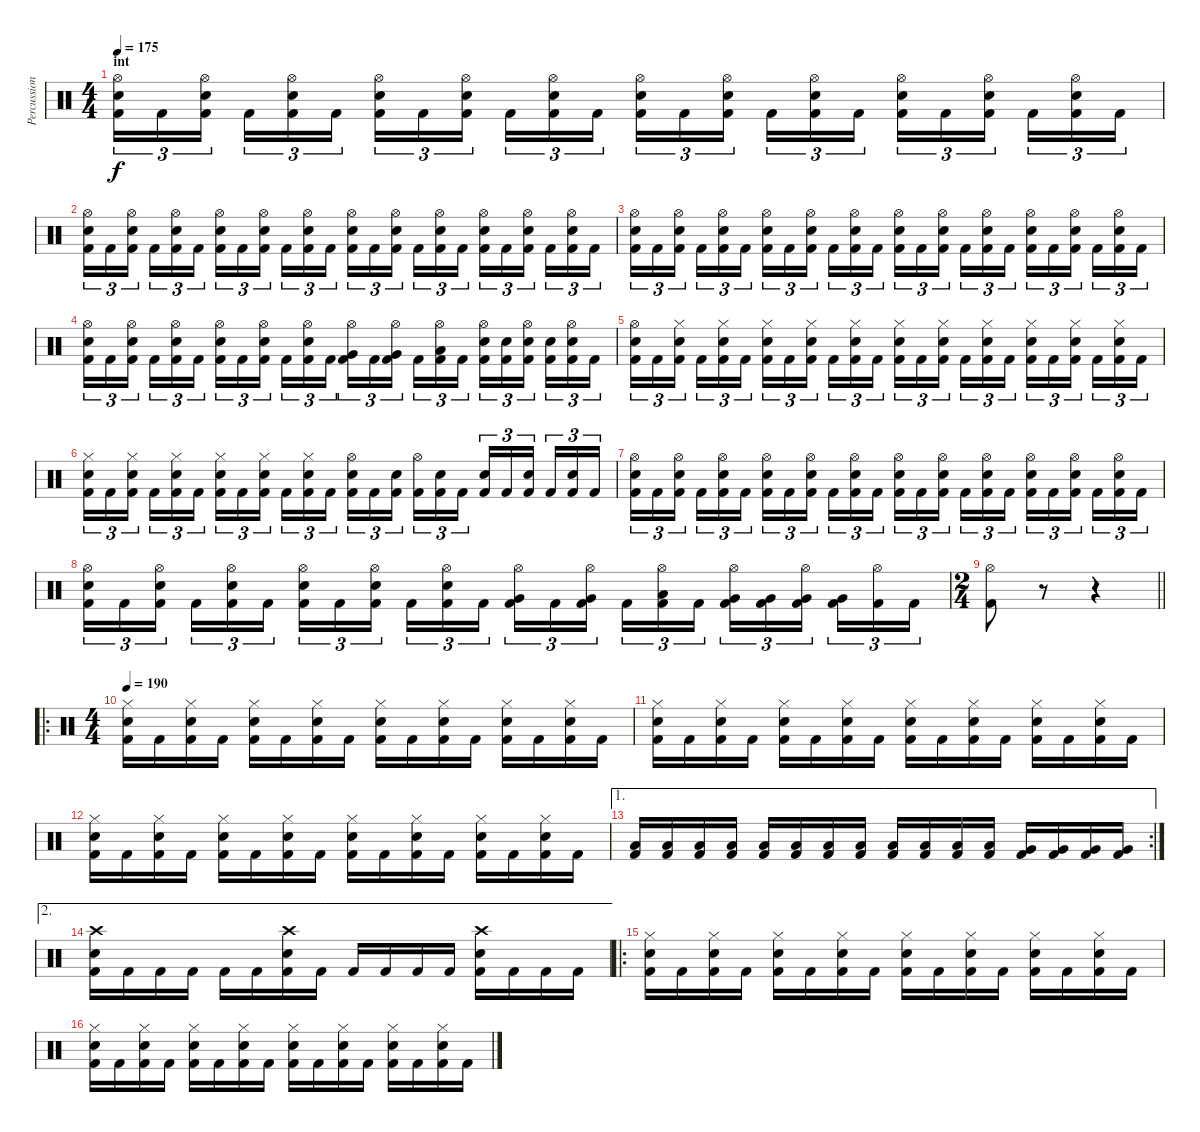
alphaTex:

\track ("Percussion" "Percussion") {instrument percussion}
\staff {score}
\articulation defaults
\ts (4 4)
\section ("" "int")
\tempo 175
\clef neutral
\ks c
("Hi-Hat (open)" "Snare (hit) 2" "Kick (hit) 2").16{tu (3 2) dy f} "Kick (hit) 2".16{tu (3 2)} ("Hi-Hat (open)" "Snare (hit) 2" "Kick (hit) 2").16{tu (3 2)} "Kick (hit) 2".16{tu (3 2)} ("Hi-Hat (open)" "Snare (hit) 2" "Kick (hit) 2").16{tu (3 2)} "Kick (hit) 2".16{tu (3 2)} ("Hi-Hat (open)" "Snare (hit) 2" "Kick (hit) 2").16{tu (3 2)} "Kick (hit) 2".16{tu (3 2)} ("Hi-Hat (open)" "Snare (hit) 2" "Kick (hit) 2").16{tu (3 2)} "Kick (hit) 2".16{tu (3 2)} ("Hi-Hat (open)" "Snare (hit) 2" "Kick (hit) 2").16{tu (3 2)} "Kick (hit) 2".16{tu (3 2)} ("Hi-Hat (open)" "Snare (hit) 2" "Kick (hit) 2").16{tu (3 2)} "Kick (hit) 2".16{tu (3 2)} ("Hi-Hat (open)" "Snare (hit) 2" "Kick (hit) 2").16{tu (3 2)} "Kick (hit) 2".16{tu (3 2)} ("Hi-Hat (open)" "Snare (hit) 2" "Kick (hit) 2").16{tu (3 2)} "Kick (hit) 2".16{tu (3 2)} ("Hi-Hat (open)" "Snare (hit) 2" "Kick (hit) 2").16{tu (3 2)} "Kick (hit) 2".16{tu (3 2)} ("Hi-Hat (open)" "Snare (hit) 2" "Kick (hit) 2").16{tu (3 2)} "Kick (hit) 2".16{tu (3 2)} ("Hi-Hat (open)" "Snare (hit) 2" "Kick (hit) 2").16{tu (3 2)} "Kick (hit) 2".16{tu (3 2)} |
("Hi-Hat (open)" "Snare (hit) 2" "Kick (hit) 2").16{tu (3 2)} "Kick (hit) 2".16{tu (3 2)} ("Hi-Hat (open)" "Snare (hit) 2" "Kick (hit) 2").16{tu (3 2)} "Kick (hit) 2".16{tu (3 2)} ("Hi-Hat (open)" "Snare (hit) 2" "Kick (hit) 2").16{tu (3 2)} "Kick (hit) 2".16{tu (3 2)} ("Hi-Hat (open)" "Snare (hit) 2" "Kick (hit) 2").16{tu (3 2)} "Kick (hit) 2".16{tu (3 2)} ("Hi-Hat (open)" "Snare (hit) 2" "Kick (hit) 2").16{tu (3 2)} "Kick (hit) 2".16{tu (3 2)} ("Hi-Hat (open)" "Snare (hit) 2" "Kick (hit) 2").16{tu (3 2)} "Kick (hit) 2".16{tu (3 2)} ("Hi-Hat (open)" "Snare (hit) 2" "Kick (hit) 2").16{tu (3 2)} "Kick (hit) 2".16{tu (3 2)} ("Hi-Hat (open)" "Snare (hit) 2" "Kick (hit) 2").16{tu (3 2)} "Kick (hit) 2".16{tu (3 2)} ("Hi-Hat (open)" "Snare (hit) 2" "Kick (hit) 2").16{tu (3 2)} "Kick (hit) 2".16{tu (3 2)} ("Hi-Hat (open)" "Snare (hit) 2" "Kick (hit) 2").16{tu (3 2)} "Kick (hit) 2".16{tu (3 2)} ("Hi-Hat (open)" "Snare (hit) 2" "Kick (hit) 2").16{tu (3 2)} "Kick (hit) 2".16{tu (3 2)} ("Hi-Hat (open)" "Snare (hit) 2" "Kick (hit) 2").16{tu (3 2)} "Kick (hit) 2".16{tu (3 2)} |
("Hi-Hat (open)" "Snare (hit) 2" "Kick (hit) 2").16{tu (3 2)} "Kick (hit) 2".16{tu (3 2)} ("Hi-Hat (open)" "Snare (hit) 2" "Kick (hit) 2").16{tu (3 2)} "Kick (hit) 2".16{tu (3 2)} ("Hi-Hat (open)" "Snare (hit) 2" "Kick (hit) 2").16{tu (3 2)} "Kick (hit) 2".16{tu (3 2)} ("Hi-Hat (open)" "Snare (hit) 2" "Kick (hit) 2").16{tu (3 2)} "Kick (hit) 2".16{tu (3 2)} ("Hi-Hat (open)" "Snare (hit) 2" "Kick (hit) 2").16{tu (3 2)} "Kick (hit) 2".16{tu (3 2)} ("Hi-Hat (open)" "Snare (hit) 2" "Kick (hit) 2").16{tu (3 2)} "Kick (hit) 2".16{tu (3 2)} ("Hi-Hat (open)" "Snare (hit) 2" "Kick (hit) 2").16{tu (3 2)} "Kick (hit) 2".16{tu (3 2)} ("Hi-Hat (open)" "Snare (hit) 2" "Kick (hit) 2").16{tu (3 2)} "Kick (hit) 2".16{tu (3 2)} ("Hi-Hat (open)" "Snare (hit) 2" "Kick (hit) 2").16{tu (3 2)} "Kick (hit) 2".16{tu (3 2)} ("Hi-Hat (open)" "Snare (hit) 2" "Kick (hit) 2").16{tu (3 2)} "Kick (hit) 2".16{tu (3 2)} ("Hi-Hat (open)" "Snare (hit) 2" "Kick (hit) 2").16{tu (3 2)} "Kick (hit) 2".16{tu (3 2)} ("Hi-Hat (open)" "Snare (hit) 2" "Kick (hit) 2").16{tu (3 2)} "Kick (hit) 2".16{tu (3 2)} |
("Hi-Hat (open)" "Snare (hit) 2" "Kick (hit) 2").16{tu (3 2)} "Kick (hit) 2".16{tu (3 2)} ("Hi-Hat (open)" "Snare (hit) 2" "Kick (hit) 2").16{tu (3 2)} "Kick (hit) 2".16{tu (3 2)} ("Hi-Hat (open)" "Snare (hit) 2" "Kick (hit) 2").16{tu (3 2)} "Kick (hit) 2".16{tu (3 2)} ("Hi-Hat (open)" "Snare (hit) 2" "Kick (hit) 2").16{tu (3 2)} "Kick (hit) 2".16{tu (3 2)} ("Hi-Hat (open)" "Snare (hit) 2" "Kick (hit) 2").16{tu (3 2)} "Kick (hit) 2".16{tu (3 2)} ("Hi-Hat (open)" "Snare (hit) 2" "Kick (hit) 2").16{tu (3 2)} "Kick (hit) 2".16{tu (3 2)} ("Hi-Hat (open)" "Very Low Tom (hit)" "Kick (hit) 2").16{tu (3 2)} "Kick (hit) 2".16{tu (3 2)} ("Hi-Hat (open)" "Very Low Tom (hit)" "Kick (hit) 2").16{tu (3 2)} "Kick (hit) 2".16{tu (3 2)} ("Hi-Hat (open)" "Low Tom (hit)" "Kick (hit) 2").16{tu (3 2)} "Kick (hit) 2".16{tu (3 2)} ("Hi-Hat (open)" "Snare (hit) 2" "Kick (hit) 2").16{tu (3 2)} ("Snare (hit) 2" "Kick (hit) 2").16{tu (3 2)} ("Hi-Hat (open)" "Snare (hit) 2" "Kick (hit) 2").16{tu (3 2)} ("Snare (hit) 2" "Kick (hit) 2").16{tu (3 2)} ("Hi-Hat (open)" "Snare (hit) 2" "Kick (hit) 2").16{tu (3 2)} "Kick (hit) 2".16{tu (3 2)} |
("Hi-Hat (open)" "Snare (hit) 2" "Kick (hit) 2").16{tu (3 2)} "Kick (hit) 2".16{tu (3 2)} ("Hi-Hat (closed)" "Snare (hit) 2" "Kick (hit) 2").16{tu (3 2)} "Kick (hit) 2".16{tu (3 2)} ("Hi-Hat (closed)" "Snare (hit) 2" "Kick (hit) 2").16{tu (3 2)} "Kick (hit) 2".16{tu (3 2)} ("Hi-Hat (closed)" "Snare (hit) 2" "Kick (hit) 2").16{tu (3 2)} "Kick (hit) 2".16{tu (3 2)} ("Hi-Hat (closed)" "Snare (hit) 2" "Kick (hit) 2").16{tu (3 2)} "Kick (hit) 2".16{tu (3 2)} ("Hi-Hat (closed)" "Snare (hit) 2" "Kick (hit) 2").16{tu (3 2)} "Kick (hit) 2".16{tu (3 2)} ("Hi-Hat (closed)" "Snare (hit) 2" "Kick (hit) 2").16{tu (3 2)} "Kick (hit) 2".16{tu (3 2)} ("Hi-Hat (closed)" "Snare (hit) 2" "Kick (hit) 2").16{tu (3 2)} "Kick (hit) 2".16{tu (3 2)} ("Hi-Hat (closed)" "Snare (hit) 2" "Kick (hit) 2").16{tu (3 2)} "Kick (hit) 2".16{tu (3 2)} ("Hi-Hat (closed)" "Snare (hit) 2" "Kick (hit) 2").16{tu (3 2)} "Kick (hit) 2".16{tu (3 2)} ("Hi-Hat (closed)" "Snare (hit) 2" "Kick (hit) 2").16{tu (3 2)} "Kick (hit) 2".16{tu (3 2)} ("Hi-Hat (closed)" "Snare (hit) 2" "Kick (hit) 2").16{tu (3 2)} "Kick (hit) 2".16{tu (3 2)} |
("Hi-Hat (closed)" "Snare (hit) 2" "Kick (hit) 2").16{tu (3 2)} "Kick (hit) 2".16{tu (3 2)} ("Hi-Hat (closed)" "Snare (hit) 2" "Kick (hit) 2").16{tu (3 2)} "Kick (hit) 2".16{tu (3 2)} ("Hi-Hat (closed)" "Snare (hit) 2" "Kick (hit) 2").16{tu (3 2)} "Kick (hit) 2".16{tu (3 2)} ("Hi-Hat (closed)" "Snare (hit) 2" "Kick (hit) 2").16{tu (3 2)} "Kick (hit) 2".16{tu (3 2)} ("Hi-Hat (closed)" "Snare (hit) 2" "Kick (hit) 2").16{tu (3 2)} "Kick (hit) 2".16{tu (3 2)} ("Hi-Hat (closed)" "Snare (hit) 2" "Kick (hit) 2").16{tu (3 2)} "Kick (hit) 2".16{tu (3 2)} ("Hi-Hat (open)" "Snare (hit) 2" "Kick (hit) 2").16{tu (3 2)} "Kick (hit) 2".16{tu (3 2)} ("Snare (hit) 2" "Kick (hit) 2").16{tu (3 2)} ("Hi-Hat (open)" "Kick (hit) 2").16{tu (3 2)} ("Snare (hit) 2" "Kick (hit) 2").16{tu (3 2)} "Kick (hit) 2".16{tu (3 2)} ("Snare (hit) 2" "Kick (hit) 2").16{tu (3 2)} "Kick (hit) 2".16{tu (3 2)} ("Snare (hit) 2" "Kick (hit) 2").16{tu (3 2)} "Kick (hit) 2".16{tu (3 2)} ("Snare (hit) 2" "Kick (hit) 2").16{tu (3 2)} "Kick (hit) 2".16{tu (3 2)} |
("Hi-Hat (open)" "Snare (hit) 2" "Kick (hit) 2").16{tu (3 2)} "Kick (hit) 2".16{tu (3 2)} ("Hi-Hat (open)" "Snare (hit) 2" "Kick (hit) 2").16{tu (3 2)} "Kick (hit) 2".16{tu (3 2)} ("Hi-Hat (open)" "Snare (hit) 2" "Kick (hit) 2").16{tu (3 2)} "Kick (hit) 2".16{tu (3 2)} ("Hi-Hat (open)" "Snare (hit) 2" "Kick (hit) 2").16{tu (3 2)} "Kick (hit) 2".16{tu (3 2)} ("Hi-Hat (open)" "Snare (hit) 2" "Kick (hit) 2").16{tu (3 2)} "Kick (hit) 2".16{tu (3 2)} ("Hi-Hat (open)" "Snare (hit) 2" "Kick (hit) 2").16{tu (3 2)} "Kick (hit) 2".16{tu (3 2)} ("Hi-Hat (open)" "Snare (hit) 2" "Kick (hit) 2").16{tu (3 2)} "Kick (hit) 2".16{tu (3 2)} ("Hi-Hat (open)" "Snare (hit) 2" "Kick (hit) 2").16{tu (3 2)} "Kick (hit) 2".16{tu (3 2)} ("Hi-Hat (open)" "Snare (hit) 2" "Kick (hit) 2").16{tu (3 2)} "Kick (hit) 2".16{tu (3 2)} ("Hi-Hat (open)" "Snare (hit) 2" "Kick (hit) 2").16{tu (3 2)} "Kick (hit) 2".16{tu (3 2)} ("Hi-Hat (open)" "Snare (hit) 2" "Kick (hit) 2").16{tu (3 2)} "Kick (hit) 2".16{tu (3 2)} ("Hi-Hat (open)" "Snare (hit) 2" "Kick (hit) 2").16{tu (3 2)} "Kick (hit) 2".16{tu (3 2)} |
("Hi-Hat (open)" "Snare (hit) 2" "Kick (hit) 2").16{tu (3 2)} "Kick (hit) 2".16{tu (3 2)} ("Hi-Hat (open)" "Snare (hit) 2" "Kick (hit) 2").16{tu (3 2)} "Kick (hit) 2".16{tu (3 2)} ("Hi-Hat (open)" "Snare (hit) 2" "Kick (hit) 2").16{tu (3 2)} "Kick (hit) 2".16{tu (3 2)} ("Hi-Hat (open)" "Snare (hit) 2" "Kick (hit) 2").16{tu (3 2)} "Kick (hit) 2".16{tu (3 2)} ("Hi-Hat (open)" "Snare (hit) 2" "Kick (hit) 2").16{tu (3 2)} "Kick (hit) 2".16{tu (3 2)} ("Hi-Hat (open)" "Snare (hit) 2" "Kick (hit) 2").16{tu (3 2)} "Kick (hit) 2".16{tu (3 2)} ("Hi-Hat (open)" "Very Low Tom (hit)" "Kick (hit) 2").16{tu (3 2)} "Kick (hit) 2".16{tu (3 2)} ("Hi-Hat (open)" "Very Low Tom (hit)" "Kick (hit) 2").16{tu (3 2)} "Kick (hit) 2".16{tu (3 2)} ("Hi-Hat (open)" "Low Tom (hit)" "Kick (hit) 2").16{tu (3 2)} "Kick (hit) 2".16{tu (3 2)} ("Hi-Hat (open)" "Very Low Tom (hit)" "Kick (hit) 2").16{tu (3 2)} ("Very Low Tom (hit)" "Kick (hit) 2").16{tu (3 2)} ("Hi-Hat (open)" "Very Low Tom (hit)" "Kick (hit) 2").16{tu (3 2)} ("Very Low Tom (hit)" "Kick (hit) 2").16{tu (3 2)} ("Hi-Hat (open)" "Kick (hit) 2").16{tu (3 2)} "Kick (hit) 2".16{tu (3 2)} |
\ts (2 4)
\barLineRight lightlight
("Hi-Hat (open)" "Kick (hit) 2").8 r.8 r.4 |
\ro
\ts (4 4)
\section ("" "")
\tempo 210
\tempo 190
("Hi-Hat (closed)" "Snare (hit) 2" "Kick (hit) 2").16 "Kick (hit) 2".16 ("Hi-Hat (closed)" "Snare (hit) 2" "Kick (hit) 2").16 "Kick (hit) 2".16 ("Hi-Hat (closed)" "Snare (hit) 2" "Kick (hit) 2").16 "Kick (hit) 2".16 ("Hi-Hat (closed)" "Snare (hit) 2" "Kick (hit) 2").16 "Kick (hit) 2".16 ("Hi-Hat (closed)" "Snare (hit) 2" "Kick (hit) 2").16 "Kick (hit) 2".16 ("Hi-Hat (closed)" "Snare (hit) 2" "Kick (hit) 2").16 "Kick (hit) 2".16 ("Hi-Hat (closed)" "Snare (hit) 2" "Kick (hit) 2").16 "Kick (hit) 2".16 ("Hi-Hat (closed)" "Snare (hit) 2" "Kick (hit) 2").16 "Kick (hit) 2".16 |
("Hi-Hat (closed)" "Snare (hit) 2" "Kick (hit) 2").16 "Kick (hit) 2".16 ("Hi-Hat (closed)" "Snare (hit) 2" "Kick (hit) 2").16 "Kick (hit) 2".16 ("Hi-Hat (closed)" "Snare (hit) 2" "Kick (hit) 2").16 "Kick (hit) 2".16 ("Hi-Hat (closed)" "Snare (hit) 2" "Kick (hit) 2").16 "Kick (hit) 2".16 ("Hi-Hat (closed)" "Snare (hit) 2" "Kick (hit) 2").16 "Kick (hit) 2".16 ("Hi-Hat (closed)" "Snare (hit) 2" "Kick (hit) 2").16 "Kick (hit) 2".16 ("Hi-Hat (closed)" "Snare (hit) 2" "Kick (hit) 2").16 "Kick (hit) 2".16 ("Hi-Hat (closed)" "Snare (hit) 2" "Kick (hit) 2").16 "Kick (hit) 2".16 |
("Hi-Hat (closed)" "Snare (hit) 2" "Kick (hit) 2").16 "Kick (hit) 2".16 ("Hi-Hat (closed)" "Snare (hit) 2" "Kick (hit) 2").16 "Kick (hit) 2".16 ("Hi-Hat (closed)" "Snare (hit) 2" "Kick (hit) 2").16 "Kick (hit) 2".16 ("Hi-Hat (closed)" "Snare (hit) 2" "Kick (hit) 2").16 "Kick (hit) 2".16 ("Hi-Hat (closed)" "Snare (hit) 2" "Kick (hit) 2").16 "Kick (hit) 2".16 ("Hi-Hat (closed)" "Snare (hit) 2" "Kick (hit) 2").16 "Kick (hit) 2".16 ("Hi-Hat (closed)" "Snare (hit) 2" "Kick (hit) 2").16 "Kick (hit) 2".16 ("Hi-Hat (closed)" "Snare (hit) 2" "Kick (hit) 2").16 "Kick (hit) 2".16 |
\ae 1
\rc 2
("Low Tom (hit)" "Kick (hit) 2").16 ("Low Tom (hit)" "Kick (hit) 2").16 ("Low Tom (hit)" "Kick (hit) 2").16 ("Low Tom (hit)" "Kick (hit) 2").16 ("Low Tom (hit)" "Kick (hit) 2").16 ("Low Tom (hit)" "Kick (hit) 2").16 ("Low Tom (hit)" "Kick (hit) 2").16 ("Low Tom (hit)" "Kick (hit) 2").16 ("Low Tom (hit)" "Kick (hit) 2").16 ("Low Tom (hit)" "Kick (hit) 2").16 ("Low Tom (hit)" "Kick (hit) 2").16 ("Low Tom (hit)" "Kick (hit) 2").16 ("Very Low Tom (hit)" "Kick (hit) 2").16 ("Very Low Tom (hit)" "Kick (hit) 2").16 ("Very Low Tom (hit)" "Kick (hit) 2").16 ("Very Low Tom (hit)" "Kick (hit) 2").16 |
\ae 2
("Crash high (hit)" "Snare (hit) 2" "Kick (hit) 2").16 "Kick (hit) 2".16 "Kick (hit) 2".16 "Kick (hit) 2".16 "Kick (hit) 2".16 "Kick (hit) 2".16 ("Crash high (hit)" "Snare (hit) 2" "Kick (hit) 2").16 "Kick (hit) 2".16 "Kick (hit) 2".16 "Kick (hit) 2".16 "Kick (hit) 2".16 "Kick (hit) 2".16 ("Crash high (hit)" "Snare (hit) 2" "Kick (hit) 2").16 "Kick (hit) 2".16 "Kick (hit) 2".16 "Kick (hit) 2".16 |
\ro
("Hi-Hat (closed)" "Snare (hit) 2" "Kick (hit) 2").16 "Kick (hit) 2".16 ("Hi-Hat (closed)" "Snare (hit) 2" "Kick (hit) 2").16 "Kick (hit) 2".16 ("Hi-Hat (closed)" "Snare (hit) 2" "Kick (hit) 2").16 "Kick (hit) 2".16 ("Hi-Hat (closed)" "Snare (hit) 2" "Kick (hit) 2").16 "Kick (hit) 2".16 ("Hi-Hat (closed)" "Snare (hit) 2" "Kick (hit) 2").16 "Kick (hit) 2".16 ("Hi-Hat (closed)" "Snare (hit) 2" "Kick (hit) 2").16 "Kick (hit) 2".16 ("Hi-Hat (closed)" "Snare (hit) 2" "Kick (hit) 2").16 "Kick (hit) 2".16 ("Hi-Hat (closed)" "Snare (hit) 2" "Kick (hit) 2").16 "Kick (hit) 2".16 |
("Hi-Hat (closed)" "Snare (hit) 2" "Kick (hit) 2").16 "Kick (hit) 2".16 ("Hi-Hat (closed)" "Snare (hit) 2" "Kick (hit) 2").16 "Kick (hit) 2".16 ("Hi-Hat (closed)" "Snare (hit) 2" "Kick (hit) 2").16 "Kick (hit) 2".16 ("Hi-Hat (closed)" "Snare (hit) 2" "Kick (hit) 2").16 "Kick (hit) 2".16 ("Hi-Hat (closed)" "Snare (hit) 2" "Kick (hit) 2").16 "Kick (hit) 2".16 ("Hi-Hat (closed)" "Snare (hit) 2" "Kick (hit) 2").16 "Kick (hit) 2".16 ("Hi-Hat (closed)" "Snare (hit) 2" "Kick (hit) 2").16 "Kick (hit) 2".16 ("Hi-Hat (closed)" "Snare (hit) 2" "Kick (hit) 2").16 "Kick (hit) 2".16
